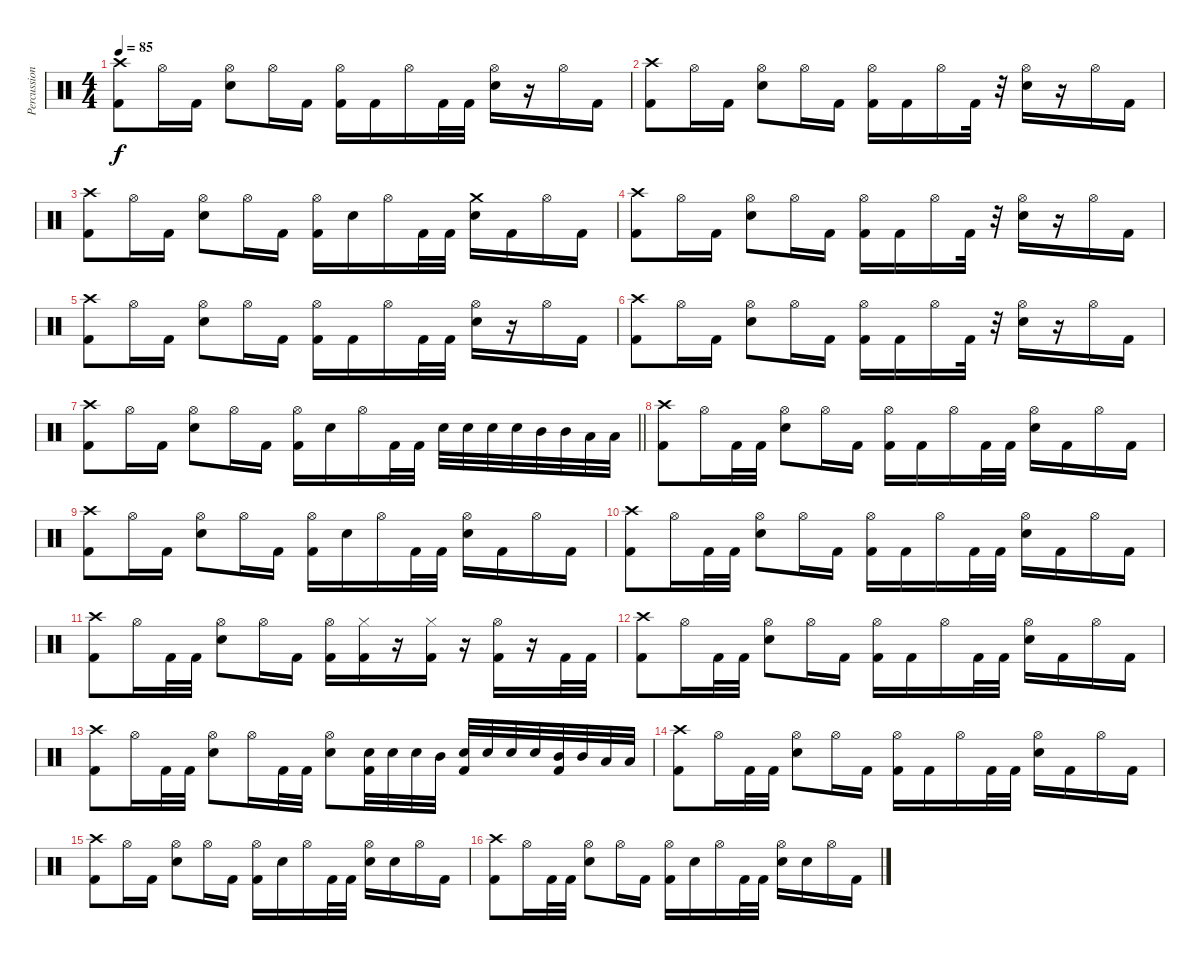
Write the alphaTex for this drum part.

\track ("Percussion" "Percussion") {instrument percussion}
\staff {score}
\articulation defaults
\ts (4 4)
\tempo 85
\clef neutral
\ks c
("Crash high (hit)" "Kick (hit) 2").8{dy f} "Hi-Hat (open)".16 "Kick (hit) 2".16 ("Hi-Hat (open)" "Electric Snare (hit)").8 "Hi-Hat (open)".16 "Kick (hit) 2".16 ("Hi-Hat (open)" "Kick (hit) 2").16 "Kick (hit) 2".16 "Hi-Hat (open)".16 "Kick (hit) 2".32 "Kick (hit) 2".32 ("Hi-Hat (open)" "Electric Snare (hit)").16 r.16 "Hi-Hat (open)".16 "Kick (hit) 2".16 |
("Crash high (hit)" "Kick (hit) 2").8 "Hi-Hat (open)".16 "Kick (hit) 2".16 ("Hi-Hat (open)" "Electric Snare (hit)").8 "Hi-Hat (open)".16 "Kick (hit) 2".16 ("Hi-Hat (open)" "Kick (hit) 2").16 "Kick (hit) 2".16 "Hi-Hat (open)".16 "Kick (hit) 2".32 r.32 ("Hi-Hat (open)" "Electric Snare (hit)").16 r.16 "Hi-Hat (open)".16 "Kick (hit) 2".16 |
("Crash high (hit)" "Kick (hit) 2").8 "Hi-Hat (open)".16 "Kick (hit) 2".16 ("Hi-Hat (open)" "Electric Snare (hit)").8 "Hi-Hat (open)".16 "Kick (hit) 2".16 ("Hi-Hat (open)" "Kick (hit) 2").16 "Electric Snare (hit)".16 "Hi-Hat (open)".16 "Kick (hit) 2".32 "Kick (hit) 2".32 ("Crash medium (hit)" "Electric Snare (hit)").16 "Kick (hit) 2".16 "Hi-Hat (open)".16 "Kick (hit) 2".16 |
("Crash high (hit)" "Kick (hit) 2").8 "Hi-Hat (open)".16 "Kick (hit) 2".16 ("Hi-Hat (open)" "Electric Snare (hit)").8 "Hi-Hat (open)".16 "Kick (hit) 2".16 ("Hi-Hat (open)" "Kick (hit) 2").16 "Kick (hit) 2".16 "Hi-Hat (open)".16 "Kick (hit) 2".32 r.32 ("Hi-Hat (open)" "Electric Snare (hit)").16 r.16 "Hi-Hat (open)".16 "Kick (hit) 2".16 |
("Crash high (hit)" "Kick (hit) 2").8 "Hi-Hat (open)".16 "Kick (hit) 2".16 ("Hi-Hat (open)" "Electric Snare (hit)").8 "Hi-Hat (open)".16 "Kick (hit) 2".16 ("Hi-Hat (open)" "Kick (hit) 2").16 "Kick (hit) 2".16 "Hi-Hat (open)".16 "Kick (hit) 2".32 "Kick (hit) 2".32 ("Hi-Hat (open)" "Electric Snare (hit)").16 r.16 "Hi-Hat (open)".16 "Kick (hit) 2".16 |
("Crash high (hit)" "Kick (hit) 2").8 "Hi-Hat (open)".16 "Kick (hit) 2".16 ("Hi-Hat (open)" "Electric Snare (hit)").8 "Hi-Hat (open)".16 "Kick (hit) 2".16 ("Hi-Hat (open)" "Kick (hit) 2").16 "Kick (hit) 2".16 "Hi-Hat (open)".16 "Kick (hit) 2".32 r.32 ("Hi-Hat (open)" "Electric Snare (hit)").16 r.16 "Hi-Hat (open)".16 "Kick (hit) 2".16 |
\barLineRight lightlight
("Crash high (hit)" "Kick (hit) 2").8 "Hi-Hat (open)".16 "Kick (hit) 2".16 ("Hi-Hat (open)" "Electric Snare (hit)").8 "Hi-Hat (open)".16 "Kick (hit) 2".16 ("Hi-Hat (open)" "Kick (hit) 2").16 "Electric Snare (hit)".16 "Hi-Hat (open)".16 "Kick (hit) 2".32 "Kick (hit) 2".32 "Electric Snare (hit)".32 "Electric Snare (hit)".32 "Electric Snare (hit)".32 "Electric Snare (hit)".32 "Mid Tom (hit)".32 "Mid Tom (hit)".32 "Low Tom (hit)".32 "Low Tom (hit)".32 |
("Crash high (hit)" "Kick (hit) 2").8 "Hi-Hat (open)".16 "Kick (hit) 2".32 "Kick (hit) 2".32 ("Hi-Hat (open)" "Electric Snare (hit)").8 "Hi-Hat (open)".16 "Kick (hit) 2".16 ("Hi-Hat (open)" "Kick (hit) 2").16 "Kick (hit) 2".16 "Hi-Hat (open)".16 "Kick (hit) 2".32 "Kick (hit) 2".32 ("Hi-Hat (open)" "Electric Snare (hit)").16 "Kick (hit) 2".16 "Hi-Hat (open)".16 "Kick (hit) 2".16 |
("Crash high (hit)" "Kick (hit) 2").8 "Hi-Hat (open)".16 "Kick (hit) 2".16 ("Hi-Hat (open)" "Electric Snare (hit)").8 "Hi-Hat (open)".16 "Kick (hit) 2".16 ("Hi-Hat (open)" "Kick (hit) 2").16 "Electric Snare (hit)".16 "Hi-Hat (open)".16 "Kick (hit) 2".32 "Kick (hit) 2".32 ("Hi-Hat (open)" "Electric Snare (hit)").16 "Kick (hit) 2".16 "Hi-Hat (open)".16 "Kick (hit) 2".16 |
("Crash high (hit)" "Kick (hit) 2").8 "Hi-Hat (open)".16 "Kick (hit) 2".32 "Kick (hit) 2".32 ("Hi-Hat (open)" "Electric Snare (hit)").8 "Hi-Hat (open)".16 "Kick (hit) 2".16 ("Hi-Hat (open)" "Kick (hit) 2").16 "Kick (hit) 2".16 "Hi-Hat (open)".16 "Kick (hit) 2".32 "Kick (hit) 2".32 ("Hi-Hat (open)" "Electric Snare (hit)").16 "Kick (hit) 2".16 "Hi-Hat (open)".16 "Kick (hit) 2".16 |
("Crash high (hit)" "Kick (hit) 2").8 "Hi-Hat (open)".16 "Kick (hit) 2".32 "Kick (hit) 2".32 ("Hi-Hat (open)" "Electric Snare (hit)").8 "Hi-Hat (open)".16 "Kick (hit) 2".16 ("Hi-Hat (open)" "Kick (hit) 2").16 ("Hi-Hat (closed)" "Kick (hit) 2").16 r.16 ("Hi-Hat (closed)" "Kick (hit) 2").16 r.16 ("Hi-Hat (open)" "Kick (hit) 2").16 r.16 "Kick (hit) 2".32 "Kick (hit) 2".32 |
("Crash high (hit)" "Kick (hit) 2").8 "Hi-Hat (open)".16 "Kick (hit) 2".32 "Kick (hit) 2".32 ("Hi-Hat (open)" "Electric Snare (hit)").8 "Hi-Hat (open)".16 "Kick (hit) 2".16 ("Hi-Hat (open)" "Kick (hit) 2").16 "Kick (hit) 2".16 "Hi-Hat (open)".16 "Kick (hit) 2".32 "Kick (hit) 2".32 ("Hi-Hat (open)" "Electric Snare (hit)").16 "Kick (hit) 2".16 "Hi-Hat (open)".16 "Kick (hit) 2".16 |
("Crash high (hit)" "Kick (hit) 2").8 "Hi-Hat (open)".16 "Kick (hit) 2".32 "Kick (hit) 2".32 ("Hi-Hat (open)" "Electric Snare (hit)").8 "Hi-Hat (open)".16 "Kick (hit) 2".32 "Kick (hit) 2".32 ("Hi-Hat (open)" "Electric Snare (hit)").8 ("Electric Snare (hit)" "Kick (hit) 2").32 "Electric Snare (hit)".32 "Electric Snare (hit)".32 "Mid Tom (hit)".32 ("Electric Snare (hit)" "Kick (hit) 2").32 "Electric Snare (hit)".32 "Electric Snare (hit)".32 "Electric Snare (hit)".32 ("Mid Tom (hit)" "Kick (hit) 2").32 "Mid Tom (hit)".32 "Low Tom (hit)".32 "Low Tom (hit)".32 |
("Crash high (hit)" "Kick (hit) 2").8 "Hi-Hat (open)".16 "Kick (hit) 2".32 "Kick (hit) 2".32 ("Hi-Hat (open)" "Electric Snare (hit)").8 "Hi-Hat (open)".16 "Kick (hit) 2".16 ("Hi-Hat (open)" "Kick (hit) 2").16 "Kick (hit) 2".16 "Hi-Hat (open)".16 "Kick (hit) 2".32 "Kick (hit) 2".32 ("Hi-Hat (open)" "Electric Snare (hit)").16 "Kick (hit) 2".16 "Hi-Hat (open)".16 "Kick (hit) 2".16 |
("Crash high (hit)" "Kick (hit) 2").8 "Hi-Hat (open)".16 "Kick (hit) 2".16 ("Hi-Hat (open)" "Electric Snare (hit)").8 "Hi-Hat (open)".16 "Kick (hit) 2".16 ("Hi-Hat (open)" "Kick (hit) 2").16 "Electric Snare (hit)".16 "Hi-Hat (open)".16 "Kick (hit) 2".32 "Kick (hit) 2".32 ("Hi-Hat (open)" "Electric Snare (hit)").16 "Electric Snare (hit)".16 "Hi-Hat (open)".16 "Kick (hit) 2".16 |
("Crash high (hit)" "Kick (hit) 2").8 "Hi-Hat (open)".16 "Kick (hit) 2".32 "Kick (hit) 2".32 ("Hi-Hat (open)" "Electric Snare (hit)").8 "Hi-Hat (open)".16 "Kick (hit) 2".16 ("Hi-Hat (open)" "Kick (hit) 2").16 "Electric Snare (hit)".16 "Hi-Hat (open)".16 "Kick (hit) 2".32 "Kick (hit) 2".32 ("Hi-Hat (open)" "Electric Snare (hit)").16 "Electric Snare (hit)".16 "Hi-Hat (open)".16 "Kick (hit) 2".16
